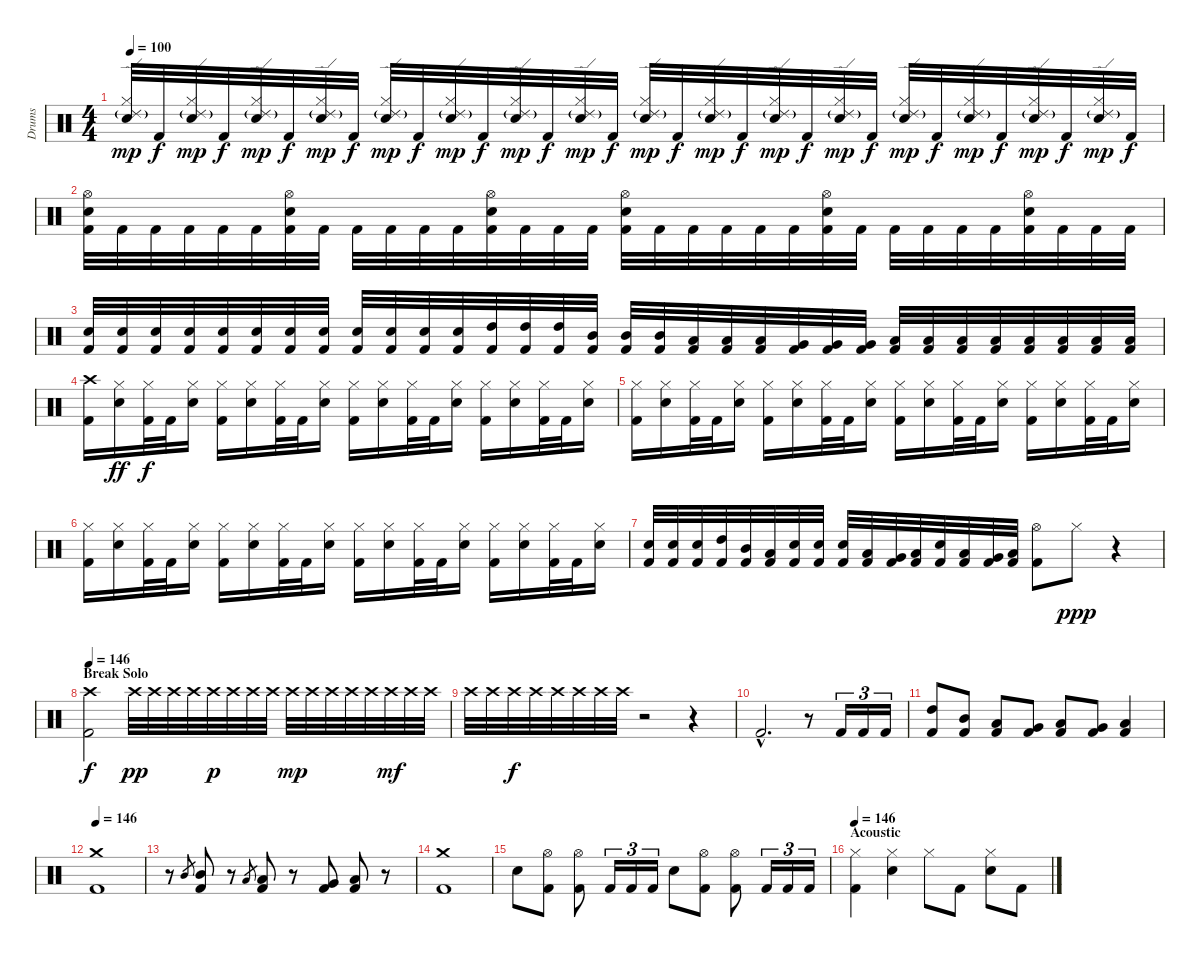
\track ("Drums" "Drums") {instrument percussion}
\staff {score}
\articulation defaults
\ts (4 4)
\tempo 100
\clef neutral
\ks c
("Snare (hit) 2" "Hi-Hat (closed)" "Ride (edge) 2"{g}).32{dy mp} "Kick (hit) 2".32{dy f} ("Snare (hit) 2" "Hi-Hat (closed)" "Ride (edge) 2"{g}).32{dy mp} "Kick (hit) 2".32{dy f} ("Snare (hit) 2" "Hi-Hat (closed)" "Ride (edge) 2"{g}).32{dy mp} "Kick (hit) 2".32{dy f} ("Snare (hit) 2" "Hi-Hat (closed)" "Ride (edge) 2"{g}).32{dy mp} "Kick (hit) 2".32{dy f} ("Snare (hit) 2" "Hi-Hat (closed)" "Ride (edge) 2"{g}).32{dy mp} "Kick (hit) 2".32{dy f} ("Snare (hit) 2" "Hi-Hat (closed)" "Ride (edge) 2"{g}).32{dy mp} "Kick (hit) 2".32{dy f} ("Snare (hit) 2" "Hi-Hat (closed)" "Ride (edge) 2"{g}).32{dy mp} "Kick (hit) 2".32{dy f} ("Snare (hit) 2" "Hi-Hat (closed)" "Ride (edge) 2"{g}).32{dy mp} "Kick (hit) 2".32{dy f} ("Snare (hit) 2" "Hi-Hat (closed)" "Ride (edge) 2"{g}).32{dy mp} "Kick (hit) 2".32{dy f} ("Snare (hit) 2" "Hi-Hat (closed)" "Ride (edge) 2"{g}).32{dy mp} "Kick (hit) 2".32{dy f} ("Snare (hit) 2" "Hi-Hat (closed)" "Ride (edge) 2"{g}).32{dy mp} "Kick (hit) 2".32{dy f} ("Snare (hit) 2" "Hi-Hat (closed)" "Ride (edge) 2"{g}).32{dy mp} "Kick (hit) 2".32{dy f} ("Snare (hit) 2" "Hi-Hat (closed)" "Ride (edge) 2"{g}).32{dy mp} "Kick (hit) 2".32{dy f} ("Snare (hit) 2" "Hi-Hat (closed)" "Ride (edge) 2"{g}).32{dy mp} "Kick (hit) 2".32{dy f} ("Snare (hit) 2" "Hi-Hat (closed)" "Ride (edge) 2"{g}).32{dy mp} "Kick (hit) 2".32{dy f} ("Snare (hit) 2" "Hi-Hat (closed)" "Ride (edge) 2"{g}).32{dy mp} "Kick (hit) 2".32{dy f} |
("Kick (hit) 2" "Snare (hit) 2" "Hi-Hat (open)").32 "Kick (hit) 2".32 "Kick (hit) 2".32 "Kick (hit) 2".32 "Kick (hit) 2".32 "Kick (hit) 2".32 ("Kick (hit) 2" "Snare (hit) 2" "Hi-Hat (open)").32 "Kick (hit) 2".32 "Kick (hit) 2".32 "Kick (hit) 2".32 "Kick (hit) 2".32 "Kick (hit) 2".32 ("Kick (hit) 2" "Snare (hit) 2" "Hi-Hat (open)").32 "Kick (hit) 2".32 "Kick (hit) 2".32 "Kick (hit) 2".32 ("Kick (hit) 2" "Snare (hit) 2" "Hi-Hat (open)").32 "Kick (hit) 2".32 "Kick (hit) 2".32 "Kick (hit) 2".32 "Kick (hit) 2".32 "Kick (hit) 2".32 ("Kick (hit) 2" "Snare (hit) 2" "Hi-Hat (open)").32 "Kick (hit) 2".32 "Kick (hit) 2".32 "Kick (hit) 2".32 "Kick (hit) 2".32 "Kick (hit) 2".32 ("Kick (hit) 2" "Snare (hit) 2" "Hi-Hat (open)").32 "Kick (hit) 2".32 "Kick (hit) 2".32 "Kick (hit) 2".32 |
("Kick (hit) 2" "Snare (hit) 2").32 ("Kick (hit) 2" "Snare (hit) 2").32 ("Kick (hit) 2" "Snare (hit) 2").32 ("Kick (hit) 2" "Snare (hit) 2").32 ("Kick (hit) 2" "Snare (hit) 2").32 ("Kick (hit) 2" "Snare (hit) 2").32 ("Kick (hit) 2" "Snare (hit) 2").32 ("Kick (hit) 2" "Snare (hit) 2").32 ("Kick (hit) 2" "Snare (hit) 2").32 ("Kick (hit) 2" "Snare (hit) 2").32 ("Kick (hit) 2" "Snare (hit) 2").32 ("Kick (hit) 2" "Snare (hit) 2").32 ("Kick (hit) 2" "High Tom (hit)").32 ("Kick (hit) 2" "High Tom (hit)").32 ("Kick (hit) 2" "High Tom (hit)").32 ("Kick (hit) 2" "Mid Tom (hit)").32 ("Kick (hit) 2" "Mid Tom (hit)").32 ("Kick (hit) 2" "Mid Tom (hit)").32 ("Kick (hit) 2" "Low Tom (hit)").32 ("Kick (hit) 2" "Low Tom (hit)").32 ("Kick (hit) 2" "Low Tom (hit)").32 ("Kick (hit) 2" "Very Low Tom (hit)").32 ("Kick (hit) 2" "Very Low Tom (hit)").32 ("Kick (hit) 2" "Very Low Tom (hit)").32 ("Kick (hit) 2" "Low Floor Tom (hit)").32 ("Kick (hit) 2" "Low Floor Tom (hit)").32 ("Kick (hit) 2" "Low Floor Tom (hit)").32 ("Kick (hit) 2" "Low Floor Tom (hit)").32 ("Kick (hit) 2" "Low Floor Tom (hit)").32 ("Kick (hit) 2" "Low Floor Tom (hit)").32 ("Kick (hit) 2" "Low Floor Tom (hit)").32 ("Kick (hit) 2" "Low Floor Tom (hit)").32 |
("Kick (hit) 2" "Crash high (hit)").16 ("Snare (hit) 2" "Hi-Hat (closed)").16{dy ff} ("Kick (hit) 2" "Hi-Hat (closed)").32{dy f} "Kick (hit) 2".32 ("Snare (hit) 2" "Hi-Hat (closed)").16 ("Kick (hit) 2" "Hi-Hat (closed)").16 ("Snare (hit) 2" "Hi-Hat (closed)").16 ("Kick (hit) 2" "Hi-Hat (closed)").32 "Kick (hit) 2".32 ("Snare (hit) 2" "Hi-Hat (closed)").16 ("Kick (hit) 2" "Hi-Hat (closed)").16 ("Snare (hit) 2" "Hi-Hat (closed)").16 ("Kick (hit) 2" "Hi-Hat (closed)").32 "Kick (hit) 2".32 ("Snare (hit) 2" "Hi-Hat (closed)").16 ("Kick (hit) 2" "Hi-Hat (closed)").16 ("Snare (hit) 2" "Hi-Hat (closed)").16 ("Kick (hit) 2" "Hi-Hat (closed)").32 "Kick (hit) 2".32 ("Snare (hit) 2" "Hi-Hat (closed)").16 |
("Kick (hit) 2" "Hi-Hat (closed)").16 ("Snare (hit) 2" "Hi-Hat (closed)").16 ("Kick (hit) 2" "Hi-Hat (closed)").32 "Kick (hit) 2".32 ("Snare (hit) 2" "Hi-Hat (closed)").16 ("Kick (hit) 2" "Hi-Hat (closed)").16 ("Snare (hit) 2" "Hi-Hat (closed)").16 ("Kick (hit) 2" "Hi-Hat (closed)").32 "Kick (hit) 2".32 ("Snare (hit) 2" "Hi-Hat (closed)").16 ("Kick (hit) 2" "Hi-Hat (closed)").16 ("Snare (hit) 2" "Hi-Hat (closed)").16 ("Kick (hit) 2" "Hi-Hat (closed)").32 "Kick (hit) 2".32 ("Snare (hit) 2" "Hi-Hat (closed)").16 ("Kick (hit) 2" "Hi-Hat (closed)").16 ("Snare (hit) 2" "Hi-Hat (closed)").16 ("Kick (hit) 2" "Hi-Hat (closed)").32 "Kick (hit) 2".32 ("Snare (hit) 2" "Hi-Hat (closed)").16 |
("Kick (hit) 2" "Hi-Hat (closed)").16 ("Snare (hit) 2" "Hi-Hat (closed)").16 ("Kick (hit) 2" "Hi-Hat (closed)").32 "Kick (hit) 2".32 ("Snare (hit) 2" "Hi-Hat (closed)").16 ("Kick (hit) 2" "Hi-Hat (closed)").16 ("Snare (hit) 2" "Hi-Hat (closed)").16 ("Kick (hit) 2" "Hi-Hat (closed)").32 "Kick (hit) 2".32 ("Snare (hit) 2" "Hi-Hat (closed)").16 ("Kick (hit) 2" "Hi-Hat (closed)").16 ("Snare (hit) 2" "Hi-Hat (closed)").16 ("Kick (hit) 2" "Hi-Hat (closed)").32 "Kick (hit) 2".32 ("Snare (hit) 2" "Hi-Hat (closed)").16 ("Kick (hit) 2" "Hi-Hat (closed)").16 ("Snare (hit) 2" "Hi-Hat (closed)").16 ("Kick (hit) 2" "Hi-Hat (closed)").32 "Kick (hit) 2".32 ("Snare (hit) 2" "Hi-Hat (closed)").16 |
("Kick (hit) 2" "Snare (hit) 2").32 ("Kick (hit) 2" "Snare (hit) 2").32 ("Kick (hit) 2" "Snare (hit) 2").32 ("Kick (hit) 2" "High Tom (hit)").32 ("Kick (hit) 2" "Mid Tom (hit)").32 ("Kick (hit) 2" "Low Tom (hit)").32 ("Kick (hit) 2" "Snare (hit) 2").32 ("Kick (hit) 2" "Snare (hit) 2").32 ("Kick (hit) 2" "Snare (hit) 2").32 ("Kick (hit) 2" "Low Tom (hit)").32 ("Kick (hit) 2" "Very Low Tom (hit)").32 ("Kick (hit) 2" "Low Floor Tom (hit)").32 ("Kick (hit) 2" "Snare (hit) 2").32 ("Kick (hit) 2" "Low Tom (hit)").32 ("Kick (hit) 2" "Very Low Tom (hit)").32 ("Kick (hit) 2" "Low Floor Tom (hit)").32 ("Kick (hit) 2" "Hi-Hat (open)").8 "Hi-Hat (closed)".8{dy ppp} r.4 |
\section ("" "Break Solo")
\tempo 146
("Kick (hit) 2" "Crash high (hit)").2{dy f} "Crash high (hit)".32{dy pp} "Crash high (hit)".32 "Crash high (hit)".32 "Crash high (hit)".32 "Crash high (hit)".32{dy p} "Crash high (hit)".32 "Crash high (hit)".32 "Crash high (hit)".32 "Crash high (hit)".32{dy mp} "Crash high (hit)".32 "Crash high (hit)".32 "Crash high (hit)".32 "Crash high (hit)".32 "Crash high (hit)".32{dy mf} "Crash high (hit)".32 "Crash high (hit)".32 |
"Crash high (hit)".32 "Crash high (hit)".32 "Crash high (hit)".32{dy f} "Crash high (hit)".32 "Crash high (hit)".32 "Crash high (hit)".32 "Crash high (hit)".32 "Crash high (hit)".32 r.2 r.4 |
"Kick (hit) 2"{hac}.2{d} r.8 "Kick (hit) 2".16{tu (3 2)} "Kick (hit) 2".16{tu (3 2)} "Kick (hit) 2".16{tu (3 2)} |
("Kick (hit) 2" "High Tom (hit)").8 ("Kick (hit) 2" "Mid Tom (hit)").8 ("Kick (hit) 2" "Low Tom (hit)").8 ("Kick (hit) 2" "Very Low Tom (hit)").8 ("Kick (hit) 2" "Low Tom (hit)").8 ("Kick (hit) 2" "Very Low Tom (hit)").8 ("Kick (hit) 2" "Low Tom (hit)").4 |
\tempo 146
("Kick (hit) 2" "Crash medium (hit)").1 |
r.8 "Mid Tom (hit)".8{gr} ("Kick (hit) 2" "Mid Tom (hit)").8 r.8 "Low Tom (hit)".8{gr} ("Kick (hit) 2" "Low Tom (hit)").8 r.8 ("Kick (hit) 2" "Very Low Tom (hit)").8 ("Kick (hit) 2" "Low Floor Tom (hit)").8 r.8 |
("Kick (hit) 2" "Crash medium (hit)").1 |
"Snare (hit) 2".8 ("Kick (hit) 2" "Hi-Hat (open)").8 ("Kick (hit) 2" "Hi-Hat (open)").8 "Kick (hit) 2".16{tu (3 2)} "Kick (hit) 2".16{tu (3 2)} "Kick (hit) 2".16{tu (3 2)} "Snare (hit) 2".8 ("Kick (hit) 2" "Hi-Hat (open)").8 ("Kick (hit) 2" "Hi-Hat (open)").8 "Kick (hit) 2".16{tu (3 2)} "Kick (hit) 2".16{tu (3 2)} "Kick (hit) 2".16{tu (3 2)} |
\section ("" "Acoustic")
\tempo 146
("Kick (hit) 2" "Hi-Hat (closed)").4 ("Snare (hit) 2" "Hi-Hat (closed)").4 "Hi-Hat (closed)".8 "Kick (hit) 2".8 ("Snare (hit) 2" "Hi-Hat (closed)").8 "Kick (hit) 2".8
